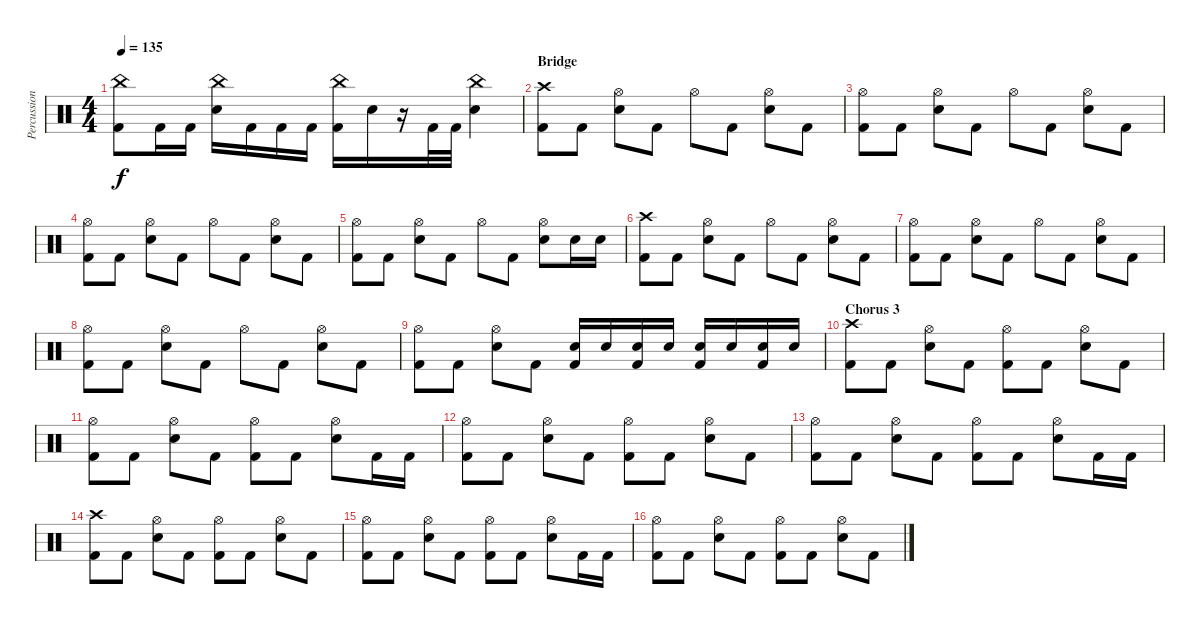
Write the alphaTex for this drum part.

\track ("Percussion" "Percussion") {instrument percussion}
\staff {score}
\articulation defaults
\ts (4 4)
\tempo 135
\clef neutral
\ks c
("Kick (hit) 2" "China (hit)").8{dy f} "Kick (hit) 2".16 "Kick (hit) 2".16 ("Electric Snare (hit)" "China (hit)").16 "Kick (hit) 2".16 "Kick (hit) 2".16 "Kick (hit) 2".16 ("Kick (hit) 2" "China (hit)").16 "Electric Snare (hit)".16 r.16 "Kick (hit) 2".32 "Kick (hit) 2".32 ("Electric Snare (hit)" "China (hit)").4 |
\section ("" "Bridge")
("Kick (hit) 2" "Crash high (hit)").8 "Kick (hit) 2".8 ("Electric Snare (hit)" "Hi-Hat (open)").8 "Kick (hit) 2".8 "Hi-Hat (open)".8 "Kick (hit) 2".8 ("Electric Snare (hit)" "Hi-Hat (open)").8 "Kick (hit) 2".8 |
("Kick (hit) 2" "Hi-Hat (open)").8 "Kick (hit) 2".8 ("Electric Snare (hit)" "Hi-Hat (open)").8 "Kick (hit) 2".8 "Hi-Hat (open)".8 "Kick (hit) 2".8 ("Electric Snare (hit)" "Hi-Hat (open)").8 "Kick (hit) 2".8 |
("Kick (hit) 2" "Hi-Hat (open)").8 "Kick (hit) 2".8 ("Electric Snare (hit)" "Hi-Hat (open)").8 "Kick (hit) 2".8 "Hi-Hat (open)".8 "Kick (hit) 2".8 ("Electric Snare (hit)" "Hi-Hat (open)").8 "Kick (hit) 2".8 |
("Kick (hit) 2" "Hi-Hat (open)").8 "Kick (hit) 2".8 ("Electric Snare (hit)" "Hi-Hat (open)").8 "Kick (hit) 2".8 "Hi-Hat (open)".8 "Kick (hit) 2".8 ("Electric Snare (hit)" "Hi-Hat (open)").8 "Electric Snare (hit)".16 "Electric Snare (hit)".16 |
("Kick (hit) 2" "Crash high (hit)").8 "Kick (hit) 2".8 ("Electric Snare (hit)" "Hi-Hat (open)").8 "Kick (hit) 2".8 "Hi-Hat (open)".8 "Kick (hit) 2".8 ("Electric Snare (hit)" "Hi-Hat (open)").8 "Kick (hit) 2".8 |
("Kick (hit) 2" "Hi-Hat (open)").8 "Kick (hit) 2".8 ("Electric Snare (hit)" "Hi-Hat (open)").8 "Kick (hit) 2".8 "Hi-Hat (open)".8 "Kick (hit) 2".8 ("Electric Snare (hit)" "Hi-Hat (open)").8 "Kick (hit) 2".8 |
("Kick (hit) 2" "Hi-Hat (open)").8 "Kick (hit) 2".8 ("Electric Snare (hit)" "Hi-Hat (open)").8 "Kick (hit) 2".8 "Hi-Hat (open)".8 "Kick (hit) 2".8 ("Electric Snare (hit)" "Hi-Hat (open)").8 "Kick (hit) 2".8 |
("Kick (hit) 2" "Hi-Hat (open)").8 "Kick (hit) 2".8 ("Electric Snare (hit)" "Hi-Hat (open)").8 "Kick (hit) 2".8 ("Electric Snare (hit)" "Kick (hit) 2").16 "Electric Snare (hit)".16 ("Electric Snare (hit)" "Kick (hit) 2").16 "Electric Snare (hit)".16 ("Electric Snare (hit)" "Kick (hit) 2").16 "Electric Snare (hit)".16 ("Electric Snare (hit)" "Kick (hit) 2").16 "Electric Snare (hit)".16 |
\section ("" "Chorus 3")
("Kick (hit) 2" "Crash high (hit)").8 "Kick (hit) 2".8 ("Electric Snare (hit)" "Hi-Hat (open)").8 "Kick (hit) 2".8 ("Kick (hit) 2" "Hi-Hat (open)").8 "Kick (hit) 2".8 ("Electric Snare (hit)" "Hi-Hat (open)").8 "Kick (hit) 2".8 |
("Kick (hit) 2" "Hi-Hat (open)").8 "Kick (hit) 2".8 ("Electric Snare (hit)" "Hi-Hat (open)").8 "Kick (hit) 2".8 ("Kick (hit) 2" "Hi-Hat (open)").8 "Kick (hit) 2".8 ("Electric Snare (hit)" "Hi-Hat (open)").8 "Kick (hit) 2".16 "Kick (hit) 2".16 |
("Kick (hit) 2" "Hi-Hat (open)").8 "Kick (hit) 2".8 ("Electric Snare (hit)" "Hi-Hat (open)").8 "Kick (hit) 2".8 ("Kick (hit) 2" "Hi-Hat (open)").8 "Kick (hit) 2".8 ("Electric Snare (hit)" "Hi-Hat (open)").8 "Kick (hit) 2".8 |
("Kick (hit) 2" "Hi-Hat (open)").8 "Kick (hit) 2".8 ("Electric Snare (hit)" "Hi-Hat (open)").8 "Kick (hit) 2".8 ("Kick (hit) 2" "Hi-Hat (open)").8 "Kick (hit) 2".8 ("Electric Snare (hit)" "Hi-Hat (open)").8 "Kick (hit) 2".16 "Kick (hit) 2".16 |
("Kick (hit) 2" "Crash high (hit)").8 "Kick (hit) 2".8 ("Electric Snare (hit)" "Hi-Hat (open)").8 "Kick (hit) 2".8 ("Kick (hit) 2" "Hi-Hat (open)").8 "Kick (hit) 2".8 ("Electric Snare (hit)" "Hi-Hat (open)").8 "Kick (hit) 2".8 |
("Kick (hit) 2" "Hi-Hat (open)").8 "Kick (hit) 2".8 ("Electric Snare (hit)" "Hi-Hat (open)").8 "Kick (hit) 2".8 ("Kick (hit) 2" "Hi-Hat (open)").8 "Kick (hit) 2".8 ("Electric Snare (hit)" "Hi-Hat (open)").8 "Kick (hit) 2".16 "Kick (hit) 2".16 |
("Kick (hit) 2" "Hi-Hat (open)").8 "Kick (hit) 2".8 ("Electric Snare (hit)" "Hi-Hat (open)").8 "Kick (hit) 2".8 ("Kick (hit) 2" "Hi-Hat (open)").8 "Kick (hit) 2".8 ("Electric Snare (hit)" "Hi-Hat (open)").8 "Kick (hit) 2".8
